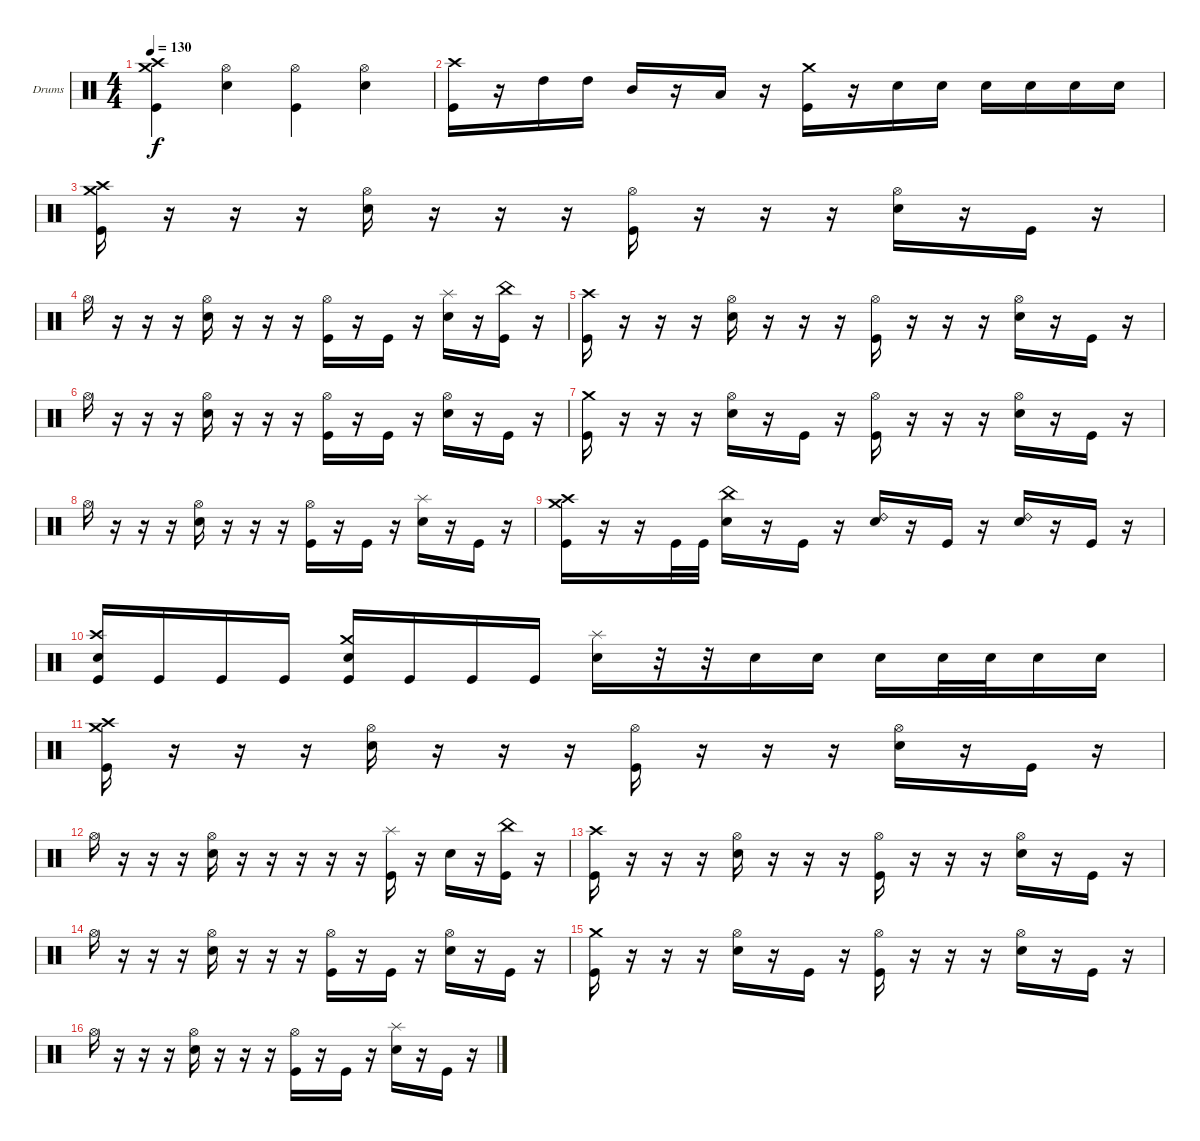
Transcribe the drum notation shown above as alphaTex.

\defaultSystemsLayout 4
\bracketExtendMode groupsimilarinstruments
\firstSystemTrackNameOrientation horizontal
\otherSystemsTrackNameOrientation horizontal
\track ("Drumkit" "Drums") {instrument percussion}
\staff {score}
\articulation defaults
\ts (4 4)
\tempo 130
\clef neutral
\scale
0.333333
\ks c
("Kick (hit)" "Crash medium (hit)" "Crash high (hit)").4{dy f} ("Snare (hit) 2" "Hi-Hat (open)").4 ("Kick (hit)" "Hi-Hat (open)").4 ("Snare (hit) 2" "Hi-Hat (open)").4 |
\scale
0.333333 ("Kick (hit)" "Crash high (hit)").16 r.16 "High Tom (hit)".16 "High Tom (hit)".16 "Mid Tom (hit)".16 r.16 "Low Tom (hit)".16 r.16 ("Kick (hit)" "Crash medium (hit)").16 r.16 "Snare (hit) 2".16 "Snare (hit) 2".16 "Snare (hit) 2".16 "Snare (hit) 2".16 "Snare (hit) 2".16 "Snare (hit) 2".16 |
\scale
0.333333 ("Kick (hit)" "Crash medium (hit)" "Crash high (hit)").16 r.16 r.16 r.16 ("Snare (hit) 2" "Hi-Hat (open)").16 r.16 r.16 r.16 ("Kick (hit)" "Hi-Hat (open)").16 r.16 r.16 r.16 ("Snare (hit) 2" "Hi-Hat (open)").16 r.16 "Kick (hit)".16 r.16 |
\scale
0.333333 "Hi-Hat (open)".16 r.16 r.16 r.16 ("Snare (hit) 2" "Hi-Hat (open)").16 r.16 r.16 r.16 ("Kick (hit)" "Hi-Hat (open)").16 r.16 "Kick (hit)".16 r.16 ("Snare (hit) 2" "Splash (hit)").16 r.16 ("Kick (hit)" "China (hit)").16 r.16 |
\scale
0.333333 ("Kick (hit)" "Crash high (hit)").16 r.16 r.16 r.16 ("Snare (hit) 2" "Hi-Hat (open)").16 r.16 r.16 r.16 ("Kick (hit)" "Hi-Hat (open)").16 r.16 r.16 r.16 ("Snare (hit) 2" "Hi-Hat (open)").16 r.16 "Kick (hit)".16 r.16 |
\scale
0.333333 "Hi-Hat (open)".16 r.16 r.16 r.16 ("Snare (hit) 2" "Hi-Hat (open)").16 r.16 r.16 r.16 ("Kick (hit)" "Hi-Hat (open)").16 r.16 "Kick (hit)".16 r.16 ("Snare (hit) 2" "Hi-Hat (open)").16 r.16 "Kick (hit)".16 r.16 |
\scale
0.333333 ("Kick (hit)" "Crash medium (hit)").16 r.16 r.16 r.16 ("Snare (hit) 2" "Hi-Hat (open)").16 r.16 "Kick (hit)".16 r.16 ("Kick (hit)" "Hi-Hat (open)").16 r.16 r.16 r.16 ("Snare (hit) 2" "Hi-Hat (open)").16 r.16 "Kick (hit)".16 r.16 |
\scale
0.333333 "Hi-Hat (open)".16 r.16 r.16 r.16 ("Snare (hit) 2" "Hi-Hat (open)").16 r.16 r.16 r.16 ("Kick (hit)" "Hi-Hat (open)").16 r.16 "Kick (hit)".16 r.16 ("Snare (hit) 2" "Splash (hit)").16 r.16 "Kick (hit)".16 r.16 |
\scale
0.333333 ("Kick (hit)" "Crash medium (hit)" "Crash high (hit)").16 r.16 r.16 "Kick (hit)".32 "Kick (hit)".32 ("Snare (hit) 2" "China (hit)").16 r.16 "Kick (hit)".16 r.16 ("Snare (hit) 2" "Ride (bell) 2").16 r.16 "Kick (hit)".16 r.16 ("Snare (hit) 2" "Ride (bell) 2").16 r.16 "Kick (hit)".16 r.16 |
\scale
0.333333 ("Kick (hit)" "Snare (hit) 2" "Crash high (hit)").16 "Kick (hit)".16 "Kick (hit)".16 "Kick (hit)".16 ("Kick (hit)" "Snare (hit) 2" "Crash medium (hit)").16 "Kick (hit)".16 "Kick (hit)".16 "Kick (hit)".16 ("Snare (hit) 2" "Splash (hit)").16 r.32 r.32 "Snare (hit) 2".16 "Snare (hit) 2".16 "Snare (hit) 2".16 "Snare (hit) 2".32 "Snare (hit) 2".32 "Snare (hit) 2".16 "Snare (hit) 2".16 |
\scale
0.333333 ("Kick (hit)" "Crash medium (hit)" "Crash high (hit)").16 r.16 r.16 r.16 ("Snare (hit) 2" "Hi-Hat (open)").16 r.16 r.16 r.16 ("Kick (hit)" "Hi-Hat (open)").16 r.16 r.16 r.16 ("Snare (hit) 2" "Hi-Hat (open)").16 r.16 "Kick (hit)".16 r.16 |
\scale
0.333333 "Hi-Hat (open)".16 r.16 r.16 r.16 ("Snare (hit) 2" "Hi-Hat (open)").16 r.16 r.16 r.16 r.16 r.16 ("Kick (hit)" "Splash (hit)").16 r.16 "Snare (hit) 2".16 r.16 ("Kick (hit)" "China (hit)").16 r.16 |
\scale
0.333333 ("Kick (hit)" "Crash high (hit)").16 r.16 r.16 r.16 ("Snare (hit) 2" "Hi-Hat (open)").16 r.16 r.16 r.16 ("Kick (hit)" "Hi-Hat (open)").16 r.16 r.16 r.16 ("Snare (hit) 2" "Hi-Hat (open)").16 r.16 "Kick (hit)".16 r.16 |
\scale
0.333333 "Hi-Hat (open)".16 r.16 r.16 r.16 ("Snare (hit) 2" "Hi-Hat (open)").16 r.16 r.16 r.16 ("Kick (hit)" "Hi-Hat (open)").16 r.16 "Kick (hit)".16 r.16 ("Snare (hit) 2" "Hi-Hat (open)").16 r.16 "Kick (hit)".16 r.16 |
\scale
0.333333 ("Kick (hit)" "Crash medium (hit)").16 r.16 r.16 r.16 ("Snare (hit) 2" "Hi-Hat (open)").16 r.16 "Kick (hit)".16 r.16 ("Kick (hit)" "Hi-Hat (open)").16 r.16 r.16 r.16 ("Snare (hit) 2" "Hi-Hat (open)").16 r.16 "Kick (hit)".16 r.16 |
\scale
0.333333 "Hi-Hat (open)".16 r.16 r.16 r.16 ("Snare (hit) 2" "Hi-Hat (open)").16 r.16 r.16 r.16 ("Kick (hit)" "Hi-Hat (open)").16 r.16 "Kick (hit)".16 r.16 ("Snare (hit) 2" "Splash (hit)").16 r.16 "Kick (hit)".16 r.16
